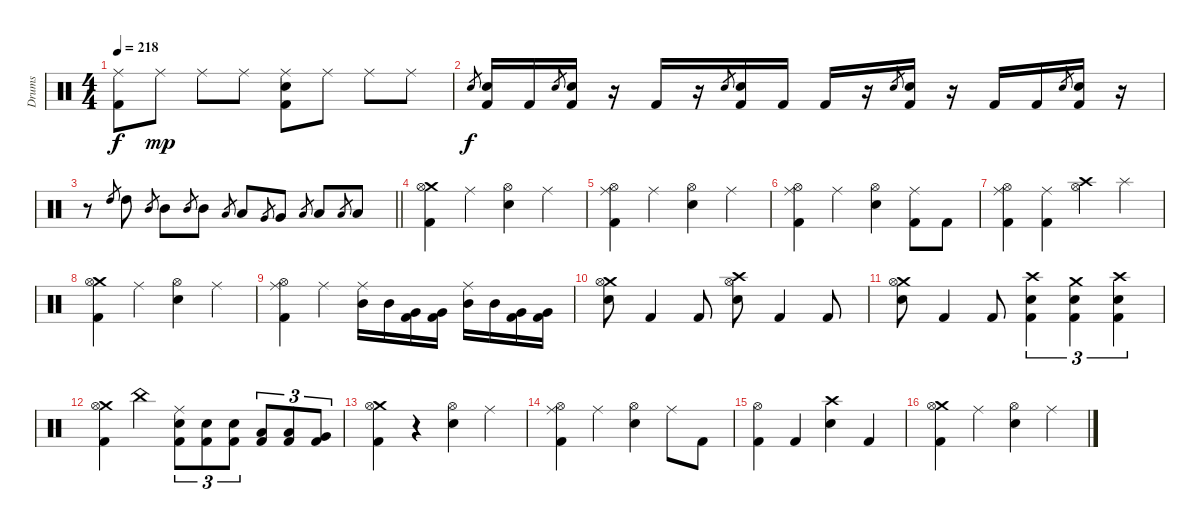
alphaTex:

\track ("Drums" "Drums") {instrument percussion}
\staff {score}
\articulation defaults
\ts (4 4)
\tempo 218
\clef neutral
\ks c
("Ride (middle)" "Kick (hit) 2").8{dy f} "Ride (middle)".8{dy mp} "Ride (middle)".8 "Ride (middle)".8 ("Ride (middle)" "Electric Snare (hit)" "Kick (hit) 2").8 "Ride (middle)".8 "Ride (middle)".8 "Ride (middle)".8 |
"Electric Snare (hit)".8{gr dy f} ("Electric Snare (hit)" "Kick (hit) 2").16 "Kick (hit) 2".16 "Electric Snare (hit)".8{gr} ("Electric Snare (hit)" "Kick (hit) 2").16 r.16 "Kick (hit) 2".16 r.16 "Electric Snare (hit)".8{gr} ("Electric Snare (hit)" "Kick (hit) 2").16 "Kick (hit) 2".16 "Kick (hit) 2".16 r.16 "Electric Snare (hit)".8{gr} ("Electric Snare (hit)" "Kick (hit) 2").16 r.16 "Kick (hit) 2".16 "Kick (hit) 2".16 "Electric Snare (hit)".8{gr} ("Electric Snare (hit)" "Kick (hit) 2").16 r.16 |
\barLineRight lightlight
r.8 "High Tom (hit)".8{gr} "High Tom (hit)".8 "Mid Tom (hit)".8{gr} "Mid Tom (hit)".8 "Mid Tom (hit)".8{gr} "Mid Tom (hit)".8 "Low Tom (hit)".8{gr} "Low Tom (hit)".8 "Very Low Tom (hit)".8{gr} "Very Low Tom (hit)".8 "Low Floor Tom (hit)".8{gr} "Low Floor Tom (hit)".8 "Low Floor Tom (hit)".8{gr} "Low Floor Tom (hit)".8 |
("Crash medium (hit)" "Hi-Hat (open)" "Kick (hit) 2").4 "Ride (middle)".4 ("Hi-Hat (open)" "Electric Snare (hit)").4 "Ride (middle)".4 |
("Ride (middle)" "Hi-Hat (open)" "Kick (hit) 2").4 "Ride (middle)".4 ("Hi-Hat (open)" "Electric Snare (hit)").4 "Ride (middle)".4 |
("Ride (middle)" "Hi-Hat (open)" "Kick (hit) 2").4 "Ride (middle)".4 ("Hi-Hat (open)" "Electric Snare (hit)").4 ("Ride (middle)" "Kick (hit) 2").8 "Kick (hit) 2".8 |
("Ride (middle)" "Hi-Hat (open)" "Kick (hit) 2").4 ("Ride (middle)" "Kick (hit) 2").4 ("Crash high (hit)" "Hi-Hat (open)").4 "Splash (hit)".4 |
("Crash medium (hit)" "Hi-Hat (open)" "Kick (hit) 2").4 "Ride (middle)".4 ("Hi-Hat (open)" "Electric Snare (hit)").4 "Ride (middle)".4 |
("Ride (middle)" "Hi-Hat (open)" "Kick (hit) 2").4 "Ride (middle)".4 ("Ride (middle)" "Mid Tom (hit)").16 "Mid Tom (hit)".16 ("Very Low Tom (hit)" "Kick (hit) 2").16 ("Very Low Tom (hit)" "Kick (hit) 2").16 ("Ride (middle)" "Mid Tom (hit)").16 "Mid Tom (hit)".16 ("Very Low Tom (hit)" "Kick (hit) 2").16 ("Very Low Tom (hit)" "Kick (hit) 2").16 |
("Crash medium (hit)" "Hi-Hat (open)" "Electric Snare (hit)").8 "Kick (hit) 2".4 "Kick (hit) 2".8 ("Crash high (hit)" "Hi-Hat (open)" "Electric Snare (hit)").8 "Kick (hit) 2".4 "Kick (hit) 2".8 |
("Crash medium (hit)" "Hi-Hat (open)" "Electric Snare (hit)").8 "Kick (hit) 2".4 "Kick (hit) 2".8 ("Crash high (hit)" "Electric Snare (hit)" "Kick (hit) 2").4{tu (3 2)} ("Crash medium (hit)" "Electric Snare (hit)" "Kick (hit) 2").4{tu (3 2)} ("Crash high (hit)" "Electric Snare (hit)" "Kick (hit) 2").4{tu (3 2)} |
("Crash medium (hit)" "Hi-Hat (open)" "Kick (hit) 2").4 "China (hit)".4 ("Ride (middle)" "Electric Snare (hit)" "Kick (hit) 2").8{tu (3 2)} ("Electric Snare (hit)" "Kick (hit) 2").8{tu (3 2)} ("Electric Snare (hit)" "Kick (hit) 2").8{tu (3 2)} ("Low Tom (hit)" "Kick (hit) 2").8{tu (3 2)} ("Low Tom (hit)" "Kick (hit) 2").8{tu (3 2)} ("Very Low Tom (hit)" "Kick (hit) 2").8{tu (3 2)} |
("Crash medium (hit)" "Hi-Hat (open)" "Kick (hit) 2").4 r.4 ("Hi-Hat (open)" "Electric Snare (hit)").4 "Ride (middle)".4 |
("Ride (middle)" "Hi-Hat (open)" "Kick (hit) 2").4 "Ride (middle)".4 ("Hi-Hat (open)" "Electric Snare (hit)").4 "Ride (middle)".8 "Kick (hit) 2".8 |
("Hi-Hat (open)" "Kick (hit) 2").4 "Kick (hit) 2".4 ("Crash high (hit)" "Electric Snare (hit)").4 "Kick (hit) 2".4 |
("Crash medium (hit)" "Hi-Hat (open)" "Kick (hit) 2").4 "Ride (middle)".4 ("Hi-Hat (open)" "Electric Snare (hit)").4 "Ride (middle)".4
